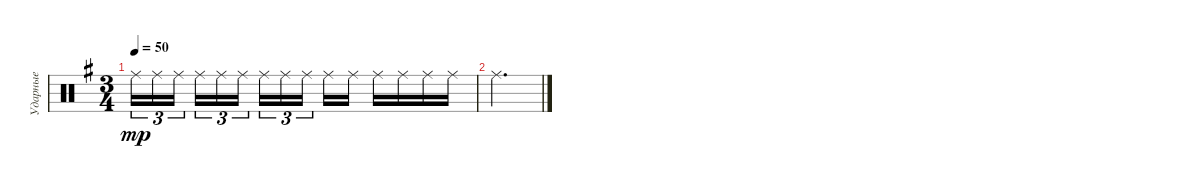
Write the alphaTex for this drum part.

\track ("Ударные" "Ударные") {instrument percussion}
\staff {score}
\articulation defaults
\ts (3 4)
\tempo 50
\clef neutral
\ks eminor "Ride (middle)".16{tu (3 2) dy mp} "Ride (middle)".16{tu (3 2)} "Ride (middle)".16{tu (3 2) beam splitsecondary} "Ride (middle)".16{tu (3 2)} "Ride (middle)".16{tu (3 2)} "Ride (middle)".16{tu (3 2)} "Ride (middle)".16{tu (3 2)} "Ride (middle)".16{tu (3 2)} "Ride (middle)".16{tu (3 2) beam splitsecondary} "Ride (middle)".16 "Ride (middle)".16 "Ride (middle)".16 "Ride (middle)".16 "Ride (middle)".16 "Ride (middle)".16
|
"Ride (middle)".2{d}
